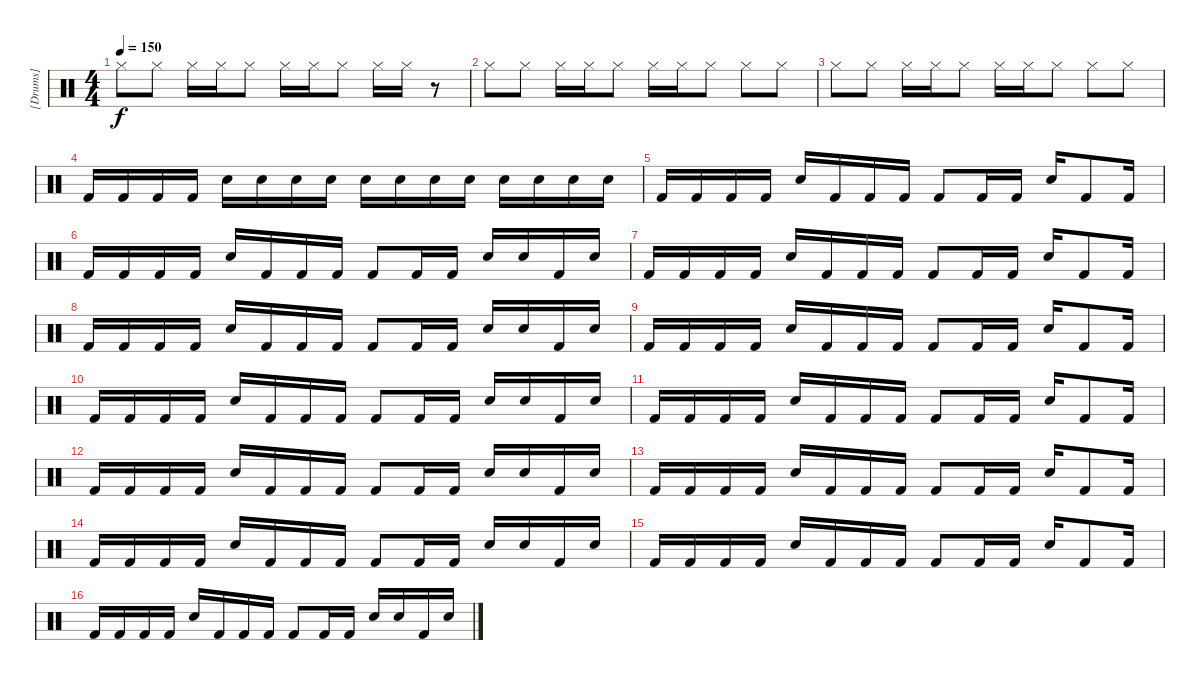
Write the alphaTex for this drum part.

\track ("[Drums]" "[Drums]") {instrument percussion}
\staff {score}
\articulation defaults
\ts (4 4)
\tempo 150
\clef neutral
\ks c "Hi-Hat (closed)".8{dy f} "Hi-Hat (closed)".8 "Hi-Hat (closed)".16 "Hi-Hat (closed)".16 "Hi-Hat (closed)".8 "Hi-Hat (closed)".16 "Hi-Hat (closed)".16 "Hi-Hat (closed)".8 "Hi-Hat (closed)".16 "Hi-Hat (closed)".16
r.8 |
"Hi-Hat (closed)".8 "Hi-Hat (closed)".8 "Hi-Hat (closed)".16 "Hi-Hat (closed)".16 "Hi-Hat (closed)".8 "Hi-Hat (closed)".16 "Hi-Hat (closed)".16 "Hi-Hat (closed)".8 "Hi-Hat (closed)".8 "Hi-Hat (closed)".8 |
"Hi-Hat (closed)".8 "Hi-Hat (closed)".8 "Hi-Hat (closed)".16 "Hi-Hat (closed)".16 "Hi-Hat (closed)".8 "Hi-Hat (closed)".16 "Hi-Hat (closed)".16 "Hi-Hat (closed)".8 "Hi-Hat (closed)".8 "Hi-Hat (closed)".8 |
"Kick (hit) 2".16 "Kick (hit) 2".16 "Kick (hit) 2".16 "Kick (hit) 2".16 "Electric Snare (hit)".16 "Electric Snare (hit)".16 "Electric Snare (hit)".16 "Electric Snare (hit)".16 "Electric Snare (hit)".16 "Electric Snare (hit)".16 "Electric Snare (hit)".16 "Electric Snare (hit)".16 "Electric Snare (hit)".16 "Electric Snare (hit)".16 "Electric Snare (hit)".16 "Electric Snare (hit)".16 |
"Kick (hit) 2".16 "Kick (hit) 2".16 "Kick (hit) 2".16 "Kick (hit) 2".16 "Electric Snare (hit)".16 "Kick (hit) 2".16 "Kick (hit) 2".16 "Kick (hit) 2".16 "Kick (hit) 2".8 "Kick (hit) 2".16 "Kick (hit) 2".16 "Electric Snare (hit)".16 "Kick (hit) 2".8 "Kick (hit) 2".16 |
"Kick (hit) 2".16 "Kick (hit) 2".16 "Kick (hit) 2".16 "Kick (hit) 2".16 "Electric Snare (hit)".16 "Kick (hit) 2".16 "Kick (hit) 2".16 "Kick (hit) 2".16 "Kick (hit) 2".8 "Kick (hit) 2".16 "Kick (hit) 2".16 "Electric Snare (hit)".16 "Electric Snare (hit)".16 "Kick (hit) 2".16 "Electric Snare (hit)".16 |
"Kick (hit) 2".16 "Kick (hit) 2".16 "Kick (hit) 2".16 "Kick (hit) 2".16 "Electric Snare (hit)".16 "Kick (hit) 2".16 "Kick (hit) 2".16 "Kick (hit) 2".16 "Kick (hit) 2".8 "Kick (hit) 2".16 "Kick (hit) 2".16 "Electric Snare (hit)".16 "Kick (hit) 2".8 "Kick (hit) 2".16 |
"Kick (hit) 2".16 "Kick (hit) 2".16 "Kick (hit) 2".16 "Kick (hit) 2".16 "Electric Snare (hit)".16 "Kick (hit) 2".16 "Kick (hit) 2".16 "Kick (hit) 2".16 "Kick (hit) 2".8 "Kick (hit) 2".16 "Kick (hit) 2".16 "Electric Snare (hit)".16 "Electric Snare (hit)".16 "Kick (hit) 2".16 "Electric Snare (hit)".16 |
"Kick (hit) 2".16 "Kick (hit) 2".16 "Kick (hit) 2".16 "Kick (hit) 2".16 "Electric Snare (hit)".16 "Kick (hit) 2".16 "Kick (hit) 2".16 "Kick (hit) 2".16 "Kick (hit) 2".8 "Kick (hit) 2".16 "Kick (hit) 2".16 "Electric Snare (hit)".16 "Kick (hit) 2".8 "Kick (hit) 2".16 |
"Kick (hit) 2".16 "Kick (hit) 2".16 "Kick (hit) 2".16 "Kick (hit) 2".16 "Electric Snare (hit)".16 "Kick (hit) 2".16 "Kick (hit) 2".16 "Kick (hit) 2".16 "Kick (hit) 2".8 "Kick (hit) 2".16 "Kick (hit) 2".16 "Electric Snare (hit)".16 "Electric Snare (hit)".16 "Kick (hit) 2".16 "Electric Snare (hit)".16 |
"Kick (hit) 2".16 "Kick (hit) 2".16 "Kick (hit) 2".16 "Kick (hit) 2".16 "Electric Snare (hit)".16 "Kick (hit) 2".16 "Kick (hit) 2".16 "Kick (hit) 2".16 "Kick (hit) 2".8 "Kick (hit) 2".16 "Kick (hit) 2".16 "Electric Snare (hit)".16 "Kick (hit) 2".8 "Kick (hit) 2".16 |
"Kick (hit) 2".16 "Kick (hit) 2".16 "Kick (hit) 2".16 "Kick (hit) 2".16 "Electric Snare (hit)".16 "Kick (hit) 2".16 "Kick (hit) 2".16 "Kick (hit) 2".16 "Kick (hit) 2".8 "Kick (hit) 2".16 "Kick (hit) 2".16 "Electric Snare (hit)".16 "Electric Snare (hit)".16 "Kick (hit) 2".16 "Electric Snare (hit)".16 |
"Kick (hit) 2".16 "Kick (hit) 2".16 "Kick (hit) 2".16 "Kick (hit) 2".16 "Electric Snare (hit)".16 "Kick (hit) 2".16 "Kick (hit) 2".16 "Kick (hit) 2".16 "Kick (hit) 2".8 "Kick (hit) 2".16 "Kick (hit) 2".16 "Electric Snare (hit)".16 "Kick (hit) 2".8 "Kick (hit) 2".16 |
"Kick (hit) 2".16 "Kick (hit) 2".16 "Kick (hit) 2".16 "Kick (hit) 2".16 "Electric Snare (hit)".16 "Kick (hit) 2".16 "Kick (hit) 2".16 "Kick (hit) 2".16 "Kick (hit) 2".8 "Kick (hit) 2".16 "Kick (hit) 2".16 "Electric Snare (hit)".16 "Electric Snare (hit)".16 "Kick (hit) 2".16 "Electric Snare (hit)".16 |
"Kick (hit) 2".16 "Kick (hit) 2".16 "Kick (hit) 2".16 "Kick (hit) 2".16 "Electric Snare (hit)".16 "Kick (hit) 2".16 "Kick (hit) 2".16 "Kick (hit) 2".16 "Kick (hit) 2".8 "Kick (hit) 2".16 "Kick (hit) 2".16 "Electric Snare (hit)".16 "Kick (hit) 2".8 "Kick (hit) 2".16 |
"Kick (hit) 2".16 "Kick (hit) 2".16 "Kick (hit) 2".16 "Kick (hit) 2".16 "Electric Snare (hit)".16 "Kick (hit) 2".16 "Kick (hit) 2".16 "Kick (hit) 2".16 "Kick (hit) 2".8 "Kick (hit) 2".16 "Kick (hit) 2".16 "Electric Snare (hit)".16 "Electric Snare (hit)".16 "Kick (hit) 2".16 "Electric Snare (hit)".16
